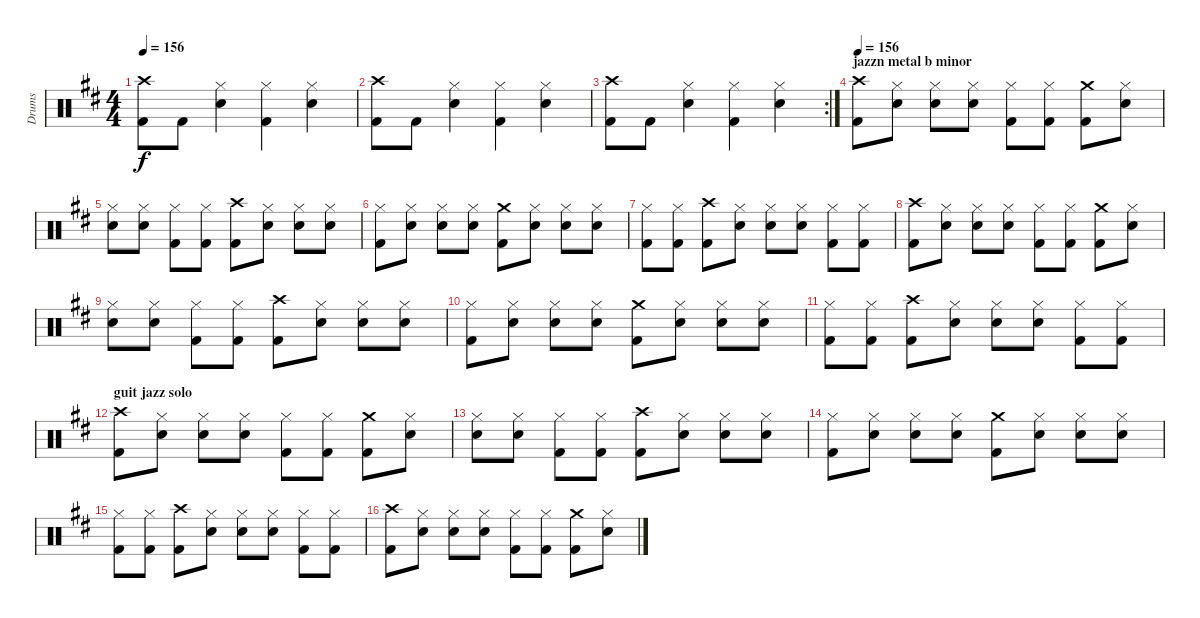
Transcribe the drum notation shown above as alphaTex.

\track ("Drums" "Drums") {instrument percussion}
\staff {score}
\articulation defaults
\ts (4 4)
\tempo 156
\clef neutral
\ks bminor
("Crash high (hit)" "Kick (hit) 2").8{dy f} "Kick (hit) 2".8 ("Hi-Hat (closed)" "Electric Snare (hit)").4 ("Hi-Hat (closed)" "Kick (hit) 2").4 ("Hi-Hat (closed)" "Electric Snare (hit)").4 |
("Crash high (hit)" "Kick (hit) 2").8 "Kick (hit) 2".8 ("Hi-Hat (closed)" "Electric Snare (hit)").4 ("Hi-Hat (closed)" "Kick (hit) 2").4 ("Hi-Hat (closed)" "Electric Snare (hit)").4 |
\rc 2
("Crash high (hit)" "Kick (hit) 2").8 "Kick (hit) 2".8 ("Hi-Hat (closed)" "Electric Snare (hit)").4 ("Hi-Hat (closed)" "Kick (hit) 2").4 ("Hi-Hat (closed)" "Electric Snare (hit)").4 |
\section ("" "jazzn metal b minor")
\tempo 156
("Crash high (hit)" "Kick (hit) 2").8 ("Hi-Hat (closed)" "Electric Snare (hit)").8 ("Hi-Hat (closed)" "Electric Snare (hit)").8 ("Hi-Hat (closed)" "Electric Snare (hit)").8 ("Hi-Hat (closed)" "Kick (hit) 2").8 ("Hi-Hat (closed)" "Kick (hit) 2").8 ("Crash medium (hit)" "Kick (hit) 2").8 ("Hi-Hat (closed)" "Electric Snare (hit)").8 |
("Hi-Hat (closed)" "Electric Snare (hit)").8 ("Hi-Hat (closed)" "Electric Snare (hit)").8 ("Hi-Hat (closed)" "Kick (hit) 2").8 ("Hi-Hat (closed)" "Kick (hit) 2").8 ("Crash high (hit)" "Kick (hit) 2").8 ("Hi-Hat (closed)" "Electric Snare (hit)").8 ("Hi-Hat (closed)" "Electric Snare (hit)").8 ("Hi-Hat (closed)" "Electric Snare (hit)").8 |
("Hi-Hat (closed)" "Kick (hit) 2").8 ("Hi-Hat (closed)" "Electric Snare (hit)").8 ("Hi-Hat (closed)" "Electric Snare (hit)").8 ("Hi-Hat (closed)" "Electric Snare (hit)").8 ("Crash medium (hit)" "Kick (hit) 2").8 ("Hi-Hat (closed)" "Electric Snare (hit)").8 ("Hi-Hat (closed)" "Electric Snare (hit)").8 ("Hi-Hat (closed)" "Electric Snare (hit)").8 |
("Hi-Hat (closed)" "Kick (hit) 2").8 ("Hi-Hat (closed)" "Kick (hit) 2").8 ("Crash high (hit)" "Kick (hit) 2").8 ("Hi-Hat (closed)" "Electric Snare (hit)").8 ("Hi-Hat (closed)" "Electric Snare (hit)").8 ("Hi-Hat (closed)" "Electric Snare (hit)").8 ("Hi-Hat (closed)" "Kick (hit) 2").8 ("Hi-Hat (closed)" "Kick (hit) 2").8 |
("Crash high (hit)" "Kick (hit) 2").8 ("Hi-Hat (closed)" "Electric Snare (hit)").8 ("Hi-Hat (closed)" "Electric Snare (hit)").8 ("Hi-Hat (closed)" "Electric Snare (hit)").8 ("Hi-Hat (closed)" "Kick (hit) 2").8 ("Hi-Hat (closed)" "Kick (hit) 2").8 ("Crash medium (hit)" "Kick (hit) 2").8 ("Hi-Hat (closed)" "Electric Snare (hit)").8 |
("Hi-Hat (closed)" "Electric Snare (hit)").8 ("Hi-Hat (closed)" "Electric Snare (hit)").8 ("Hi-Hat (closed)" "Kick (hit) 2").8 ("Hi-Hat (closed)" "Kick (hit) 2").8 ("Crash high (hit)" "Kick (hit) 2").8 ("Hi-Hat (closed)" "Electric Snare (hit)").8 ("Hi-Hat (closed)" "Electric Snare (hit)").8 ("Hi-Hat (closed)" "Electric Snare (hit)").8 |
("Hi-Hat (closed)" "Kick (hit) 2").8 ("Hi-Hat (closed)" "Electric Snare (hit)").8 ("Hi-Hat (closed)" "Electric Snare (hit)").8 ("Hi-Hat (closed)" "Electric Snare (hit)").8 ("Crash medium (hit)" "Kick (hit) 2").8 ("Hi-Hat (closed)" "Electric Snare (hit)").8 ("Hi-Hat (closed)" "Electric Snare (hit)").8 ("Hi-Hat (closed)" "Electric Snare (hit)").8 |
("Hi-Hat (closed)" "Kick (hit) 2").8 ("Hi-Hat (closed)" "Kick (hit) 2").8 ("Crash high (hit)" "Kick (hit) 2").8 ("Hi-Hat (closed)" "Electric Snare (hit)").8 ("Hi-Hat (closed)" "Electric Snare (hit)").8 ("Hi-Hat (closed)" "Electric Snare (hit)").8 ("Hi-Hat (closed)" "Kick (hit) 2").8 ("Hi-Hat (closed)" "Kick (hit) 2").8 |
\section ("" "guit jazz solo")
("Crash high (hit)" "Kick (hit) 2").8 ("Hi-Hat (closed)" "Electric Snare (hit)").8 ("Hi-Hat (closed)" "Electric Snare (hit)").8 ("Hi-Hat (closed)" "Electric Snare (hit)").8 ("Hi-Hat (closed)" "Kick (hit) 2").8 ("Hi-Hat (closed)" "Kick (hit) 2").8 ("Crash medium (hit)" "Kick (hit) 2").8 ("Hi-Hat (closed)" "Electric Snare (hit)").8 |
("Hi-Hat (closed)" "Electric Snare (hit)").8 ("Hi-Hat (closed)" "Electric Snare (hit)").8 ("Hi-Hat (closed)" "Kick (hit) 2").8 ("Hi-Hat (closed)" "Kick (hit) 2").8 ("Crash high (hit)" "Kick (hit) 2").8 ("Hi-Hat (closed)" "Electric Snare (hit)").8 ("Hi-Hat (closed)" "Electric Snare (hit)").8 ("Hi-Hat (closed)" "Electric Snare (hit)").8 |
("Hi-Hat (closed)" "Kick (hit) 2").8 ("Hi-Hat (closed)" "Electric Snare (hit)").8 ("Hi-Hat (closed)" "Electric Snare (hit)").8 ("Hi-Hat (closed)" "Electric Snare (hit)").8 ("Crash medium (hit)" "Kick (hit) 2").8 ("Hi-Hat (closed)" "Electric Snare (hit)").8 ("Hi-Hat (closed)" "Electric Snare (hit)").8 ("Hi-Hat (closed)" "Electric Snare (hit)").8 |
("Hi-Hat (closed)" "Kick (hit) 2").8 ("Hi-Hat (closed)" "Kick (hit) 2").8 ("Crash high (hit)" "Kick (hit) 2").8 ("Hi-Hat (closed)" "Electric Snare (hit)").8 ("Hi-Hat (closed)" "Electric Snare (hit)").8 ("Hi-Hat (closed)" "Electric Snare (hit)").8 ("Hi-Hat (closed)" "Kick (hit) 2").8 ("Hi-Hat (closed)" "Kick (hit) 2").8 |
("Crash high (hit)" "Kick (hit) 2").8 ("Hi-Hat (closed)" "Electric Snare (hit)").8 ("Hi-Hat (closed)" "Electric Snare (hit)").8 ("Hi-Hat (closed)" "Electric Snare (hit)").8 ("Hi-Hat (closed)" "Kick (hit) 2").8 ("Hi-Hat (closed)" "Kick (hit) 2").8 ("Crash medium (hit)" "Kick (hit) 2").8 ("Hi-Hat (closed)" "Electric Snare (hit)").8
